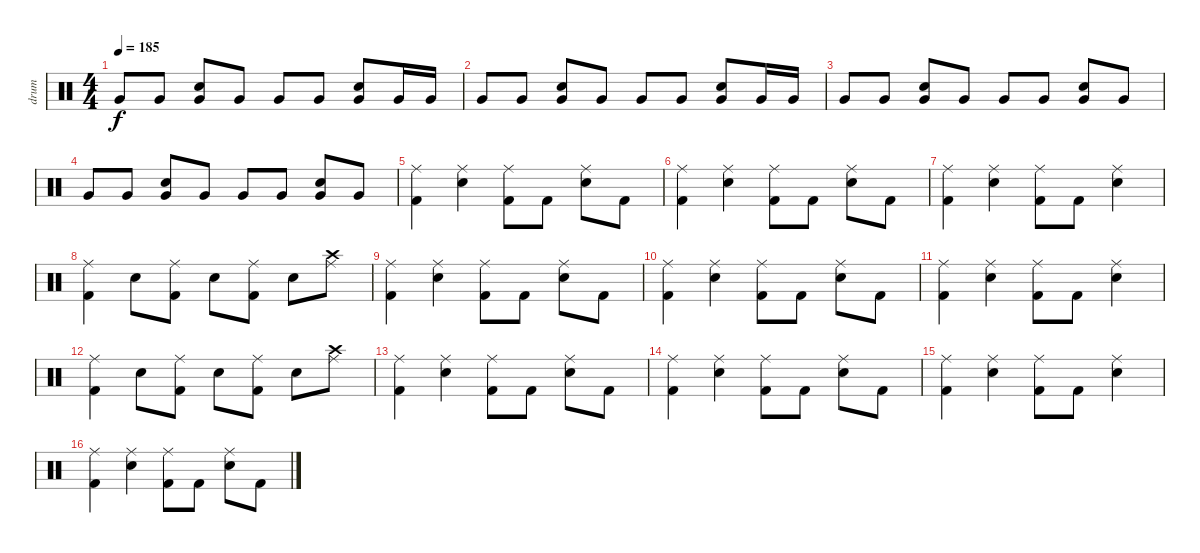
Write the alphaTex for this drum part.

\track ("drum" "drum") {instrument percussion}
\staff {score}
\articulation defaults
\ts (4 4)
\tempo 185
\clef neutral
\ks c "Very Low Tom (hit)".8{dy f} "Very Low Tom (hit)".8
("Snare (hit) 2" "Very Low Tom (hit)").8 "Very Low Tom (hit)".8 "Very Low Tom (hit)".8 "Very Low Tom (hit)".8 ("Snare (hit) 2" "Very Low Tom (hit)").8 "Very Low Tom (hit)".16 "Very Low Tom (hit)".16 |
"Very Low Tom (hit)".8 "Very Low Tom (hit)".8 ("Snare (hit) 2" "Very Low Tom (hit)").8 "Very Low Tom (hit)".8 "Very Low Tom (hit)".8 "Very Low Tom (hit)".8 ("Snare (hit) 2" "Very Low Tom (hit)").8 "Very Low Tom (hit)".16 "Very Low Tom (hit)".16 |
"Very Low Tom (hit)".8 "Very Low Tom (hit)".8 ("Snare (hit) 2" "Very Low Tom (hit)").8 "Very Low Tom (hit)".8 "Very Low Tom (hit)".8 "Very Low Tom (hit)".8 ("Snare (hit) 2" "Very Low Tom (hit)").8 "Very Low Tom (hit)".8 |
"Very Low Tom (hit)".8 "Very Low Tom (hit)".8 ("Snare (hit) 2" "Very Low Tom (hit)").8 "Very Low Tom (hit)".8 "Very Low Tom (hit)".8 "Very Low Tom (hit)".8 ("Snare (hit) 2" "Very Low Tom (hit)").8 "Very Low Tom (hit)".8 |
("Ride (middle)" "Kick (hit) 2").4 ("Ride (middle)" "Snare (hit) 2").4 ("Ride (middle)" "Kick (hit) 2").8 "Kick (hit) 2".8 ("Ride (middle)" "Snare (hit) 2").8 "Kick (hit) 2".8 |
("Ride (middle)" "Kick (hit) 2").4 ("Ride (middle)" "Snare (hit) 2").4 ("Ride (middle)" "Kick (hit) 2").8 "Kick (hit) 2".8 ("Ride (middle)" "Snare (hit) 2").8 "Kick (hit) 2".8 |
("Ride (middle)" "Kick (hit) 2").4 ("Ride (middle)" "Snare (hit) 2").4 ("Ride (middle)" "Kick (hit) 2").8 "Kick (hit) 2".8 ("Ride (middle)" "Snare (hit) 2").4 |
("Ride (middle)" "Kick (hit) 2").4 "Snare (hit) 2".8 ("Ride (middle)" "Kick (hit) 2").8 "Snare (hit) 2".8 ("Ride (middle)" "Kick (hit) 2").8 "Snare (hit) 2".8 ("Ride (middle)" "Crash high (hit)").8 |
("Ride (middle)" "Kick (hit) 2").4 ("Ride (middle)" "Snare (hit) 2").4 ("Ride (middle)" "Kick (hit) 2").8 "Kick (hit) 2".8 ("Ride (middle)" "Snare (hit) 2").8 "Kick (hit) 2".8 |
("Ride (middle)" "Kick (hit) 2").4 ("Ride (middle)" "Snare (hit) 2").4 ("Ride (middle)" "Kick (hit) 2").8 "Kick (hit) 2".8 ("Ride (middle)" "Snare (hit) 2").8 "Kick (hit) 2".8 |
("Ride (middle)" "Kick (hit) 2").4 ("Ride (middle)" "Snare (hit) 2").4 ("Ride (middle)" "Kick (hit) 2").8 "Kick (hit) 2".8 ("Ride (middle)" "Snare (hit) 2").4 |
("Ride (middle)" "Kick (hit) 2").4 "Snare (hit) 2".8 ("Ride (middle)" "Kick (hit) 2").8 "Snare (hit) 2".8 ("Ride (middle)" "Kick (hit) 2").8 "Snare (hit) 2".8 ("Ride (middle)" "Crash high (hit)").8 |
("Ride (middle)" "Kick (hit) 2").4 ("Ride (middle)" "Snare (hit) 2").4 ("Ride (middle)" "Kick (hit) 2").8 "Kick (hit) 2".8 ("Ride (middle)" "Snare (hit) 2").8 "Kick (hit) 2".8 |
("Ride (middle)" "Kick (hit) 2").4 ("Ride (middle)" "Snare (hit) 2").4 ("Ride (middle)" "Kick (hit) 2").8 "Kick (hit) 2".8 ("Ride (middle)" "Snare (hit) 2").8 "Kick (hit) 2".8 |
("Ride (middle)" "Kick (hit) 2").4 ("Ride (middle)" "Snare (hit) 2").4 ("Ride (middle)" "Kick (hit) 2").8 "Kick (hit) 2".8 ("Ride (middle)" "Snare (hit) 2").4 |
("Ride (middle)" "Kick (hit) 2").4 ("Ride (middle)" "Snare (hit) 2").4 ("Ride (middle)" "Kick (hit) 2").8 "Kick (hit) 2".8 ("Ride (middle)" "Snare (hit) 2").8 "Kick (hit) 2".8
